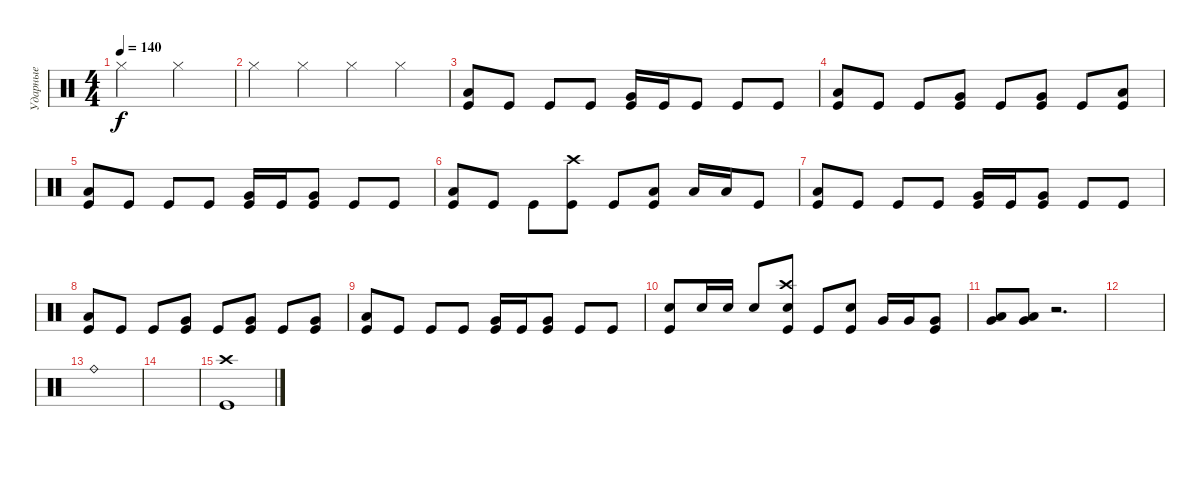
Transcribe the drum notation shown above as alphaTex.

\track ("Ударные" "Ударные") {instrument percussion}
\staff {score}
\articulation defaults
\ts (4 4)
\tempo 140
\clef neutral
\ks c "Hi-Hat (closed)".2{dy f} "Hi-Hat (closed)".2
|
"Hi-Hat (closed)".4 "Hi-Hat (closed)".4 "Hi-Hat (closed)".4 "Hi-Hat (closed)".4 |
("Low Tom (hit)" "Kick (hit)").8 "Kick (hit)".8 "Kick (hit)".8 "Kick (hit)".8 ("Very Low Tom (hit)" "Kick (hit)").16 "Kick (hit)".16 "Kick (hit)".8 "Kick (hit)".8 "Kick (hit)".8 |
("Low Tom (hit)" "Kick (hit)").8 "Kick (hit)".8 "Kick (hit)".8 ("Very Low Tom (hit)" "Kick (hit)").8 "Kick (hit)".8 ("Very Low Tom (hit)" "Kick (hit)").8 "Kick (hit)".8 ("Low Tom (hit)" "Kick (hit)").8 |
("Low Tom (hit)" "Kick (hit)").8 "Kick (hit)".8 "Kick (hit)".8 "Kick (hit)".8 ("Very Low Tom (hit)" "Kick (hit)").16 "Kick (hit)".16 ("Very Low Tom (hit)" "Kick (hit)").8 "Kick (hit)".8 "Kick (hit)".8 |
("Low Tom (hit)" "Kick (hit)").8 "Kick (hit)".8 "Kick (hit)".8 ("Crash high (hit)" "Kick (hit)").8 "Kick (hit)".8 ("Low Tom (hit)" "Kick (hit)").8 "Low Tom (hit)".16 "Low Tom (hit)".16 "Kick (hit)".8 |
("Low Tom (hit)" "Kick (hit)").8 "Kick (hit)".8 "Kick (hit)".8 "Kick (hit)".8 ("Very Low Tom (hit)" "Kick (hit)").16 "Kick (hit)".16 ("Very Low Tom (hit)" "Kick (hit)").8 "Kick (hit)".8 "Kick (hit)".8 |
("Low Tom (hit)" "Kick (hit)").8 "Kick (hit)".8 "Kick (hit)".8 ("Very Low Tom (hit)" "Kick (hit)").8 "Kick (hit)".8 ("Very Low Tom (hit)" "Kick (hit)").8 "Kick (hit)".8 ("Very Low Tom (hit)" "Kick (hit)").8 |
("Low Tom (hit)" "Kick (hit)").8 "Kick (hit)".8 "Kick (hit)".8 "Kick (hit)".8 ("Very Low Tom (hit)" "Kick (hit)").16 "Kick (hit)".16 ("Very Low Tom (hit)" "Kick (hit)").8 "Kick (hit)".8 "Kick (hit)".8 |
("Electric Snare (hit)" "Kick (hit)").8 "Electric Snare (hit)".16 "Electric Snare (hit)".16 "Electric Snare (hit)".8 ("Crash high (hit)" "Electric Snare (hit)" "Kick (hit)").8 "Kick (hit)".8 ("Electric Snare (hit)" "Kick (hit)").8 "Very Low Tom (hit)".16 "Very Low Tom (hit)".16 ("Very Low Tom (hit)" "Kick (hit)").8 |
("Very Low Tom (hit)" "Low Tom (hit)").8 ("Very Low Tom (hit)" "Low Tom (hit)").8 r.2{d} |
|
"Ride (bell)".1 |
|
("Crash high (hit)" "Kick (hit)").1
